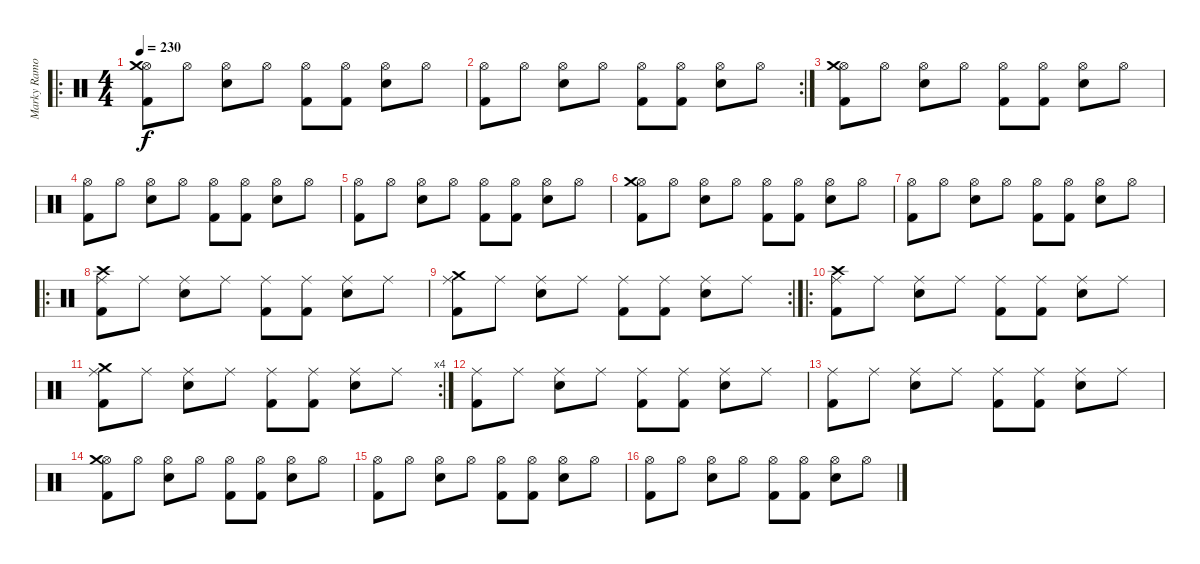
\track ("Marky Ramone" "Marky Ramo") {instrument percussion}
\staff {score}
\articulation defaults
\ro
\ts (4 4)
\tempo 230
\clef neutral
\ks c
("Hi-Hat (open)" "Kick (hit) 2" "Crash medium (hit)").8{dy f} "Hi-Hat (open)".8 ("Hi-Hat (open)" "Electric Snare (hit)").8 "Hi-Hat (open)".8 ("Hi-Hat (open)" "Kick (hit) 2").8 ("Hi-Hat (open)" "Kick (hit) 2").8 ("Hi-Hat (open)" "Electric Snare (hit)").8 "Hi-Hat (open)".8 |
\rc 2
("Hi-Hat (open)" "Kick (hit) 2").8 "Hi-Hat (open)".8 ("Hi-Hat (open)" "Electric Snare (hit)").8 "Hi-Hat (open)".8 ("Hi-Hat (open)" "Kick (hit) 2").8 ("Hi-Hat (open)" "Kick (hit) 2").8 ("Hi-Hat (open)" "Electric Snare (hit)").8 "Hi-Hat (open)".8 |
("Hi-Hat (open)" "Kick (hit) 2" "Crash medium (hit)").8 "Hi-Hat (open)".8 ("Hi-Hat (open)" "Electric Snare (hit)").8 "Hi-Hat (open)".8 ("Hi-Hat (open)" "Kick (hit) 2").8 ("Hi-Hat (open)" "Kick (hit) 2").8 ("Hi-Hat (open)" "Electric Snare (hit)").8 "Hi-Hat (open)".8 |
("Hi-Hat (open)" "Kick (hit) 2").8 "Hi-Hat (open)".8 ("Hi-Hat (open)" "Electric Snare (hit)").8 "Hi-Hat (open)".8 ("Hi-Hat (open)" "Kick (hit) 2").8 ("Hi-Hat (open)" "Kick (hit) 2").8 ("Hi-Hat (open)" "Electric Snare (hit)").8 "Hi-Hat (open)".8 |
("Hi-Hat (open)" "Kick (hit) 2").8 "Hi-Hat (open)".8 ("Hi-Hat (open)" "Electric Snare (hit)").8 "Hi-Hat (open)".8 ("Hi-Hat (open)" "Kick (hit) 2").8 ("Hi-Hat (open)" "Kick (hit) 2").8 ("Hi-Hat (open)" "Electric Snare (hit)").8 "Hi-Hat (open)".8 |
("Hi-Hat (open)" "Kick (hit) 2" "Crash medium (hit)").8 "Hi-Hat (open)".8 ("Hi-Hat (open)" "Electric Snare (hit)").8 "Hi-Hat (open)".8 ("Hi-Hat (open)" "Kick (hit) 2").8 ("Hi-Hat (open)" "Kick (hit) 2").8 ("Hi-Hat (open)" "Electric Snare (hit)").8 "Hi-Hat (open)".8 |
("Hi-Hat (open)" "Kick (hit) 2").8 "Hi-Hat (open)".8 ("Hi-Hat (open)" "Electric Snare (hit)").8 "Hi-Hat (open)".8 ("Hi-Hat (open)" "Kick (hit) 2").8 ("Hi-Hat (open)" "Kick (hit) 2").8 ("Hi-Hat (open)" "Electric Snare (hit)").8 "Hi-Hat (open)".8 |
\ro
("Ride (middle)" "Kick (hit) 2" "Crash high (hit)").8 "Ride (middle)".8 ("Ride (middle)" "Electric Snare (hit)").8 "Ride (middle)".8 ("Ride (middle)" "Kick (hit) 2").8 ("Ride (middle)" "Kick (hit) 2").8 ("Ride (middle)" "Electric Snare (hit)").8 "Ride (middle)".8 |
\rc 2
("Ride (middle)" "Kick (hit) 2" "Crash medium (hit)").8 "Ride (middle)".8 ("Ride (middle)" "Electric Snare (hit)").8 "Ride (middle)".8 ("Ride (middle)" "Kick (hit) 2").8 ("Ride (middle)" "Kick (hit) 2").8 ("Ride (middle)" "Electric Snare (hit)").8 "Ride (middle)".8 |
\ro
("Ride (middle)" "Kick (hit) 2" "Crash high (hit)").8 "Ride (middle)".8 ("Ride (middle)" "Electric Snare (hit)").8 "Ride (middle)".8 ("Ride (middle)" "Kick (hit) 2").8 ("Ride (middle)" "Kick (hit) 2").8 ("Ride (middle)" "Electric Snare (hit)").8 "Ride (middle)".8 |
\rc 4
("Ride (middle)" "Kick (hit) 2" "Crash medium (hit)").8 "Ride (middle)".8 ("Ride (middle)" "Electric Snare (hit)").8 "Ride (middle)".8 ("Ride (middle)" "Kick (hit) 2").8 ("Ride (middle)" "Kick (hit) 2").8 ("Ride (middle)" "Electric Snare (hit)").8 "Ride (middle)".8 |
("Ride (middle)" "Kick (hit) 2").8 "Ride (middle)".8 ("Ride (middle)" "Electric Snare (hit)").8 "Ride (middle)".8 ("Ride (middle)" "Kick (hit) 2").8 ("Ride (middle)" "Kick (hit) 2").8 ("Ride (middle)" "Electric Snare (hit)").8 "Ride (middle)".8 |
("Ride (middle)" "Kick (hit) 2").8 "Ride (middle)".8 ("Ride (middle)" "Electric Snare (hit)").8 "Ride (middle)".8 ("Ride (middle)" "Kick (hit) 2").8 ("Ride (middle)" "Kick (hit) 2").8 ("Ride (middle)" "Electric Snare (hit)").8 "Ride (middle)".8 |
("Hi-Hat (open)" "Kick (hit) 2" "Crash medium (hit)").8 "Hi-Hat (open)".8 ("Hi-Hat (open)" "Electric Snare (hit)").8 "Hi-Hat (open)".8 ("Hi-Hat (open)" "Kick (hit) 2").8 ("Hi-Hat (open)" "Kick (hit) 2").8 ("Hi-Hat (open)" "Electric Snare (hit)").8 "Hi-Hat (open)".8 |
("Hi-Hat (open)" "Kick (hit) 2").8 "Hi-Hat (open)".8 ("Hi-Hat (open)" "Electric Snare (hit)").8 "Hi-Hat (open)".8 ("Hi-Hat (open)" "Kick (hit) 2").8 ("Hi-Hat (open)" "Kick (hit) 2").8 ("Hi-Hat (open)" "Electric Snare (hit)").8 "Hi-Hat (open)".8 |
("Hi-Hat (open)" "Kick (hit) 2").8 "Hi-Hat (open)".8 ("Hi-Hat (open)" "Electric Snare (hit)").8 "Hi-Hat (open)".8 ("Hi-Hat (open)" "Kick (hit) 2").8 ("Hi-Hat (open)" "Kick (hit) 2").8 ("Hi-Hat (open)" "Electric Snare (hit)").8 "Hi-Hat (open)".8
